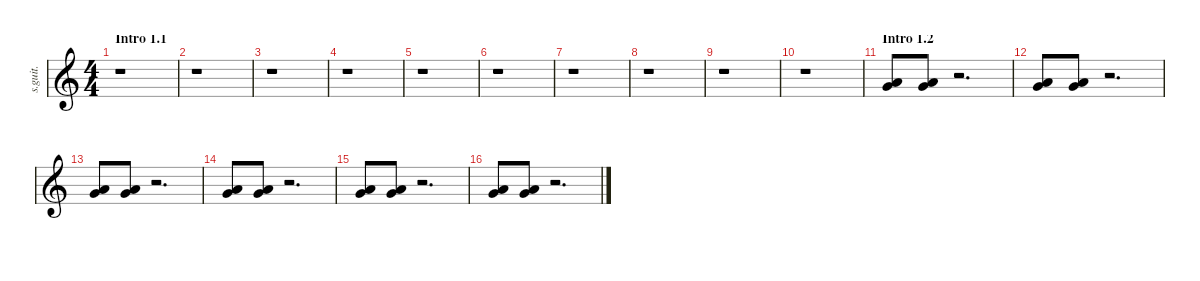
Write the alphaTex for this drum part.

\defaultSystemsLayout 4
\hideDynamics
\bracketExtendMode nobrackets
\track ("Chris Fehn" "s.guit.") {instrument percussion}
\staff {score}
\articulation defaults
\ts (4 4)
\beaming (8 2 2 2 2)
\section ("" "Intro 1.1")
\tempo (192 hide)
\clef g2
\ks c
r.1{dy f} |
r.1 |
r.1 |
r.1 |
r.1 |
r.1 |
r.1 |
r.1 |
r.1 |
r.1 |
\section ("" "Intro 1.2")
("Very Low Tom (hit)" "Low Floor Tom (hit)").8{lyrics (0 "") lyrics (1 "") lyrics (2 "") lyrics (3 "") lyrics (4 "")} ("Very Low Tom (hit)" "Low Floor Tom (hit)").8{lyrics (0 "") lyrics (1 "") lyrics (2 "") lyrics (3 "") lyrics (4 "")} r.2{d} |
("Very Low Tom (hit)" "Low Floor Tom (hit)").8{lyrics (0 "") lyrics (1 "") lyrics (2 "") lyrics (3 "") lyrics (4 "")} ("Very Low Tom (hit)" "Low Floor Tom (hit)").8{lyrics (0 "") lyrics (1 "") lyrics (2 "") lyrics (3 "") lyrics (4 "")} r.2{d} |
("Very Low Tom (hit)" "Low Floor Tom (hit)").8{lyrics (0 "") lyrics (1 "") lyrics (2 "") lyrics (3 "") lyrics (4 "")} ("Very Low Tom (hit)" "Low Floor Tom (hit)").8{lyrics (0 "") lyrics (1 "") lyrics (2 "") lyrics (3 "") lyrics (4 "")} r.2{d} |
("Very Low Tom (hit)" "Low Floor Tom (hit)").8{lyrics (0 "") lyrics (1 "") lyrics (2 "") lyrics (3 "") lyrics (4 "")} ("Very Low Tom (hit)" "Low Floor Tom (hit)").8{lyrics (0 "") lyrics (1 "") lyrics (2 "") lyrics (3 "") lyrics (4 "")} r.2{d} |
("Very Low Tom (hit)" "Low Floor Tom (hit)").8{lyrics (0 "") lyrics (1 "") lyrics (2 "") lyrics (3 "") lyrics (4 "")} ("Very Low Tom (hit)" "Low Floor Tom (hit)").8{lyrics (0 "") lyrics (1 "") lyrics (2 "") lyrics (3 "") lyrics (4 "")} r.2{d} |
("Very Low Tom (hit)" "Low Floor Tom (hit)").8{lyrics (0 "") lyrics (1 "") lyrics (2 "") lyrics (3 "") lyrics (4 "")} ("Very Low Tom (hit)" "Low Floor Tom (hit)").8{lyrics (0 "") lyrics (1 "") lyrics (2 "") lyrics (3 "") lyrics (4 "")} r.2{d}
